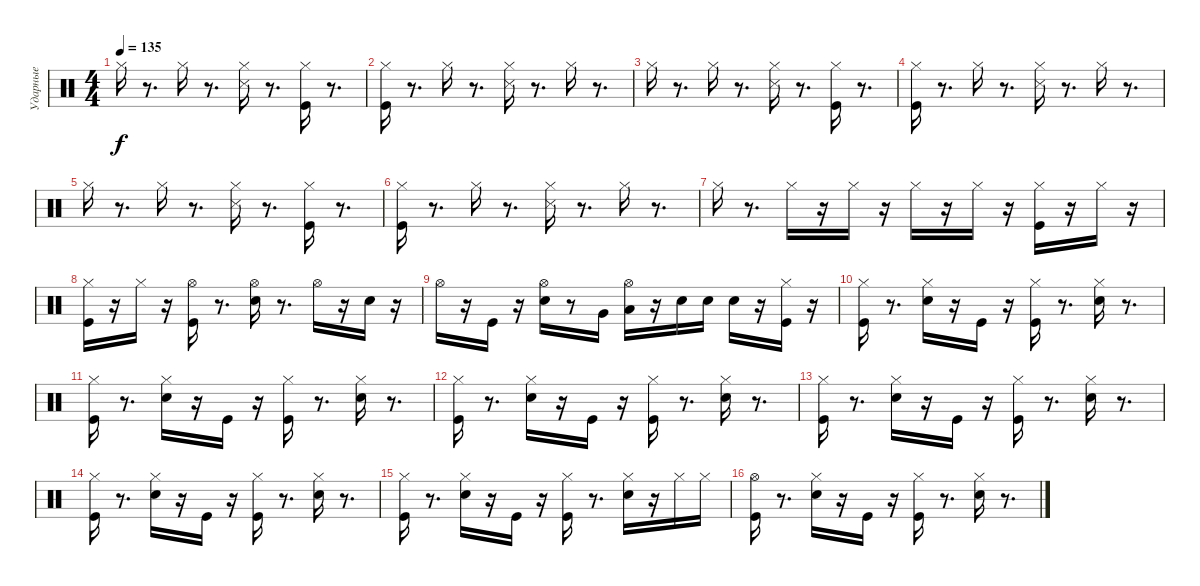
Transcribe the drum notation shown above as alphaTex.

\track ("Ударные" "Ударные") {instrument percussion}
\staff {score}
\articulation defaults
\ts (4 4)
\tempo 135
\clef neutral
\ks c "Hi-Hat (closed)".16{dy f}
r.8{d} "Hi-Hat (closed)".16 r.8{d} ("Hi-Hat (closed)" "Snare (side stick) 3").16 r.8{d} ("Kick (hit)" "Hi-Hat (closed)").16 r.8{d} |
("Kick (hit)" "Hi-Hat (closed)").16 r.8{d} "Hi-Hat (closed)".16 r.8{d} ("Hi-Hat (closed)" "Snare (side stick) 3").16 r.8{d} "Hi-Hat (closed)".16 r.8{d} |
"Hi-Hat (closed)".16 r.8{d} "Hi-Hat (closed)".16 r.8{d} ("Hi-Hat (closed)" "Snare (side stick) 3").16 r.8{d} ("Kick (hit)" "Hi-Hat (closed)").16 r.8{d} |
("Kick (hit)" "Hi-Hat (closed)").16 r.8{d} "Hi-Hat (closed)".16 r.8{d} ("Hi-Hat (closed)" "Snare (side stick) 3").16 r.8{d} "Hi-Hat (closed)".16 r.8{d} |
"Hi-Hat (closed)".16 r.8{d} "Hi-Hat (closed)".16 r.8{d} ("Hi-Hat (closed)" "Snare (side stick) 3").16 r.8{d} ("Kick (hit)" "Hi-Hat (closed)").16 r.8{d} |
("Kick (hit)" "Hi-Hat (closed)").16 r.8{d} "Hi-Hat (closed)".16 r.8{d} ("Hi-Hat (closed)" "Snare (side stick) 3").16 r.8{d} "Hi-Hat (closed)".16 r.8{d} |
"Hi-Hat (closed)".16 r.8{d} "Hi-Hat (closed)".16 r.16 "Hi-Hat (closed)".16 r.16 "Hi-Hat (closed)".16 r.16 "Hi-Hat (closed)".16 r.16 ("Kick (hit)" "Hi-Hat (closed)").16 r.16 "Hi-Hat (closed)".16 r.16 |
("Kick (hit)" "Hi-Hat (closed)").16 r.16 "Hi-Hat (closed)".16 r.16 ("Kick (hit)" "Hi-Hat (open)").16 r.8{d} ("Snare (hit) 2" "Hi-Hat (open)").16 r.8{d} "Hi-Hat (open)".16 r.16 "Snare (hit) 2".16 r.16 |
"Hi-Hat (open)".16 r.16 "Kick (hit)".16 r.16 ("Snare (hit) 2" "Hi-Hat (open)").16 r.8 "Very Low Tom (hit)".16 ("Hi-Hat (open)" "Low Tom (hit)").16 r.16 "Snare (hit) 2".16 "Snare (hit) 2".16 "Snare (hit) 2".16 r.16 ("Hi-Hat (closed)" "Kick (hit)").16 r.16 |
("Hi-Hat (closed)" "Kick (hit)").16 r.8{d} ("Hi-Hat (closed)" "Snare (hit) 2").16 r.16 "Kick (hit)".16 r.16 ("Hi-Hat (closed)" "Kick (hit)").16 r.8{d} ("Hi-Hat (closed)" "Snare (hit) 2").16 r.8{d} |
("Hi-Hat (closed)" "Kick (hit)").16 r.8{d} ("Hi-Hat (closed)" "Snare (hit) 2").16 r.16 "Kick (hit)".16 r.16 ("Hi-Hat (closed)" "Kick (hit)").16 r.8{d} ("Hi-Hat (closed)" "Snare (hit) 2").16 r.8{d} |
("Hi-Hat (closed)" "Kick (hit)").16 r.8{d} ("Hi-Hat (closed)" "Snare (hit) 2").16 r.16 "Kick (hit)".16 r.16 ("Hi-Hat (closed)" "Kick (hit)").16 r.8{d} ("Hi-Hat (closed)" "Snare (hit) 2").16 r.8{d} |
("Hi-Hat (closed)" "Kick (hit)").16 r.8{d} ("Hi-Hat (closed)" "Snare (hit) 2").16 r.16 "Kick (hit)".16 r.16 ("Hi-Hat (closed)" "Kick (hit)").16 r.8{d} ("Hi-Hat (closed)" "Snare (hit) 2").16 r.8{d} |
("Hi-Hat (closed)" "Kick (hit)").16 r.8{d} ("Hi-Hat (closed)" "Snare (hit) 2").16 r.16 "Kick (hit)".16 r.16 ("Hi-Hat (closed)" "Kick (hit)").16 r.8{d} ("Hi-Hat (closed)" "Snare (hit) 2").16 r.8{d} |
("Hi-Hat (closed)" "Kick (hit)").16 r.8{d} ("Hi-Hat (closed)" "Snare (hit) 2").16 r.16 "Kick (hit)".16 r.16 ("Hi-Hat (closed)" "Kick (hit)").16 r.8{d} ("Hi-Hat (closed)" "Snare (hit) 2").16 r.16 "Hi-Hat (closed)".16 "Hi-Hat (closed)".16 |
("Kick (hit)" "Hi-Hat (open)").16 r.8{d} ("Hi-Hat (closed)" "Snare (hit) 2").16 r.16 "Kick (hit)".16 r.16 ("Hi-Hat (closed)" "Kick (hit)").16 r.8{d} ("Hi-Hat (closed)" "Snare (hit) 2").16 r.8{d}
